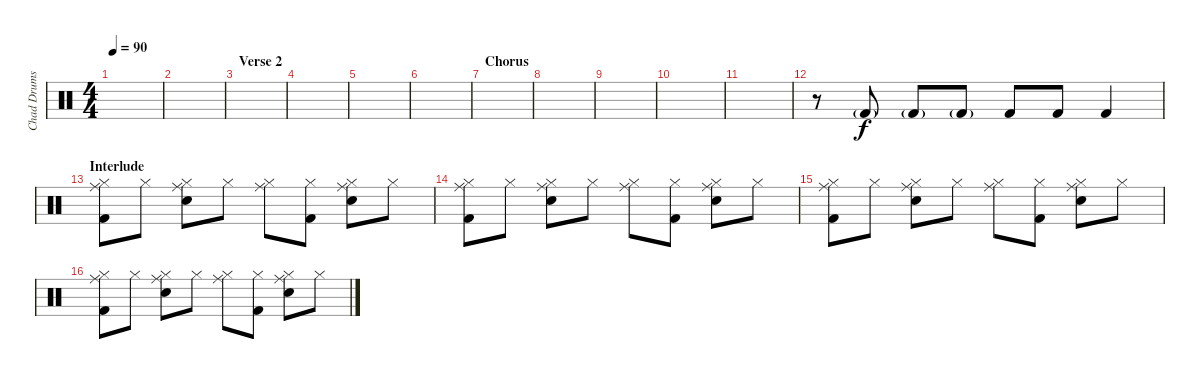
\track ("Chad Drums" "Chad Drums") {instrument percussion}
\staff {score}
\articulation defaults
\ts (4 4)
\tempo 90
\clef neutral
\ks c
|
|
\section ("" "Verse 2")
|
|
|
|
\section ("" "Chorus")
|
|
|
|
|
r.8 "Kick (hit) 2"{g}.8 "Kick (hit) 2"{g}.8 "Kick (hit) 2"{g}.8 "Kick (hit) 2".8{dy f} "Kick (hit) 2".8 "Kick (hit) 2".4 |
\section ("" "Interlude")
("Ride (middle)" "Hi-Hat (closed)" "Kick (hit) 2").8 "Hi-Hat (closed)".8 ("Ride (middle)" "Hi-Hat (closed)" "Snare (hit) 2").8 "Hi-Hat (closed)".8 ("Ride (middle)" "Hi-Hat (closed)").8 ("Hi-Hat (closed)" "Kick (hit) 2").8 ("Ride (middle)" "Hi-Hat (closed)" "Snare (hit) 2").8 "Hi-Hat (closed)".8 |
("Ride (middle)" "Hi-Hat (closed)" "Kick (hit) 2").8 "Hi-Hat (closed)".8 ("Ride (middle)" "Hi-Hat (closed)" "Snare (hit) 2").8 "Hi-Hat (closed)".8 ("Ride (middle)" "Hi-Hat (closed)").8 ("Hi-Hat (closed)" "Kick (hit) 2").8 ("Ride (middle)" "Hi-Hat (closed)" "Snare (hit) 2").8 "Hi-Hat (closed)".8 |
("Ride (middle)" "Hi-Hat (closed)" "Kick (hit) 2").8 "Hi-Hat (closed)".8 ("Ride (middle)" "Hi-Hat (closed)" "Snare (hit) 2").8 "Hi-Hat (closed)".8 ("Ride (middle)" "Hi-Hat (closed)").8 ("Hi-Hat (closed)" "Kick (hit) 2").8 ("Ride (middle)" "Hi-Hat (closed)" "Snare (hit) 2").8 "Hi-Hat (closed)".8 |
("Ride (middle)" "Hi-Hat (closed)" "Kick (hit) 2").8 "Hi-Hat (closed)".8 ("Ride (middle)" "Hi-Hat (closed)" "Snare (hit) 2").8 "Hi-Hat (closed)".8 ("Ride (middle)" "Hi-Hat (closed)").8 ("Hi-Hat (closed)" "Kick (hit) 2").8 ("Ride (middle)" "Hi-Hat (closed)" "Snare (hit) 2").8 "Hi-Hat (closed)".8
